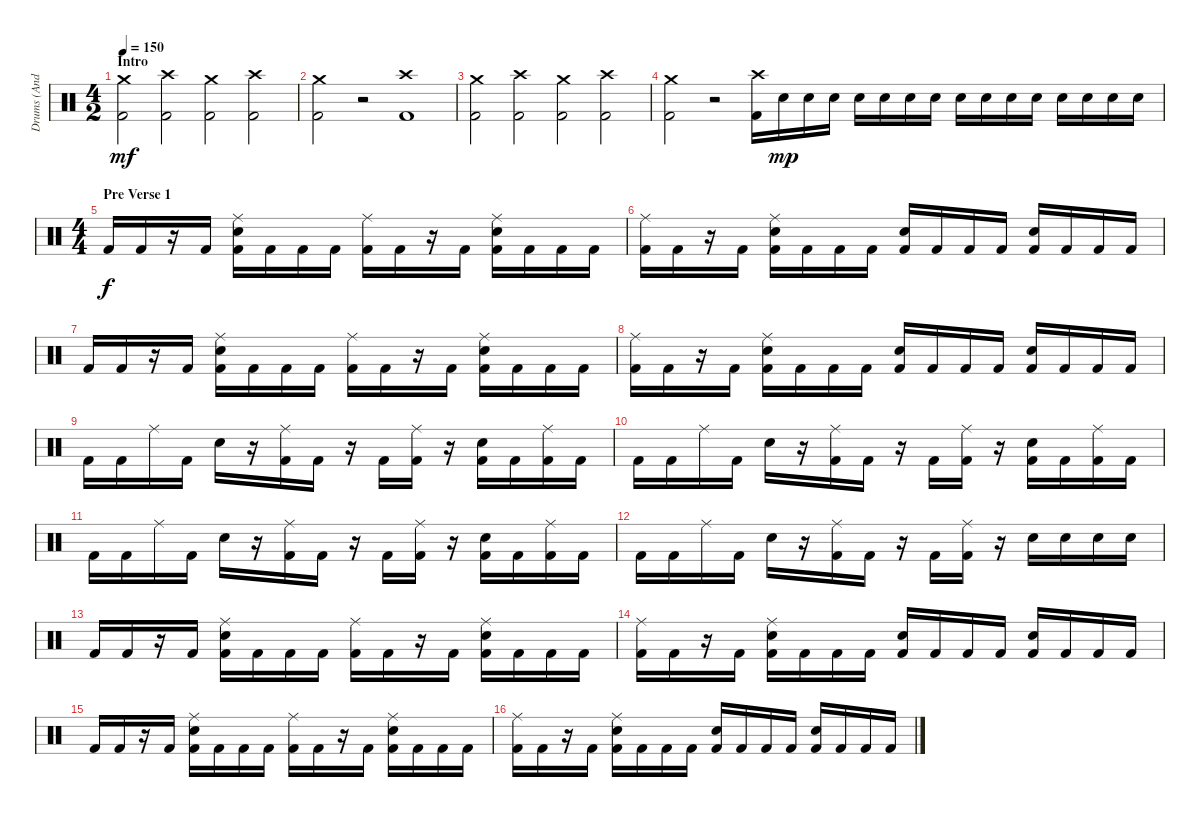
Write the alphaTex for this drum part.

\track ("Drums (Andy C)" "Drums (And") {instrument percussion}
\staff {score}
\articulation defaults
\ts (4 2)
\section ("" "Intro")
\tempo 150
\clef neutral
\ks c
("Crash medium (hit)" "Kick (hit) 2").2{dy mf} ("Crash high (hit)" "Kick (hit) 2").2 ("Crash medium (hit)" "Kick (hit) 2").2 ("Crash high (hit)" "Kick (hit) 2").2 |
("Crash medium (hit)" "Kick (hit) 2").2 r.2 ("Crash high (hit)" "Kick (hit) 2").1 |
("Crash medium (hit)" "Kick (hit) 2").2 ("Crash high (hit)" "Kick (hit) 2").2 ("Crash medium (hit)" "Kick (hit) 2").2 ("Crash high (hit)" "Kick (hit) 2").2 |
("Crash medium (hit)" "Kick (hit) 2").2 r.2 ("Crash high (hit)" "Kick (hit) 2").16 "Electric Snare (hit)".16{dy mp} "Electric Snare (hit)".16 "Electric Snare (hit)".16 "Electric Snare (hit)".16 "Electric Snare (hit)".16 "Electric Snare (hit)".16 "Electric Snare (hit)".16 "Electric Snare (hit)".16 "Electric Snare (hit)".16 "Electric Snare (hit)".16 "Electric Snare (hit)".16 "Electric Snare (hit)".16 "Electric Snare (hit)".16 "Electric Snare (hit)".16 "Electric Snare (hit)".16 |
\ts (4 4)
\section ("" "Pre Verse 1")
"Kick (hit) 2".16{dy f} "Kick (hit) 2".16 r.16 "Kick (hit) 2".16 ("Ride (middle)" "Kick (hit) 2" "Electric Snare (hit)").16 "Kick (hit) 2".16 "Kick (hit) 2".16 "Kick (hit) 2".16 ("Ride (middle)" "Kick (hit) 2").16 "Kick (hit) 2".16 r.16 "Kick (hit) 2".16 ("Ride (middle)" "Kick (hit) 2" "Electric Snare (hit)").16 "Kick (hit) 2".16 "Kick (hit) 2".16 "Kick (hit) 2".16 |
("Ride (middle)" "Kick (hit) 2").16 "Kick (hit) 2".16 r.16 "Kick (hit) 2".16 ("Ride (middle)" "Kick (hit) 2" "Electric Snare (hit)").16 "Kick (hit) 2".16 "Kick (hit) 2".16 "Kick (hit) 2".16 ("Kick (hit) 2" "Electric Snare (hit)").16 "Kick (hit) 2".16 "Kick (hit) 2".16 "Kick (hit) 2".16 ("Kick (hit) 2" "Electric Snare (hit)").16 "Kick (hit) 2".16 "Kick (hit) 2".16 "Kick (hit) 2".16 |
"Kick (hit) 2".16 "Kick (hit) 2".16 r.16 "Kick (hit) 2".16 ("Ride (middle)" "Kick (hit) 2" "Electric Snare (hit)").16 "Kick (hit) 2".16 "Kick (hit) 2".16 "Kick (hit) 2".16 ("Ride (middle)" "Kick (hit) 2").16 "Kick (hit) 2".16 r.16 "Kick (hit) 2".16 ("Ride (middle)" "Kick (hit) 2" "Electric Snare (hit)").16 "Kick (hit) 2".16 "Kick (hit) 2".16 "Kick (hit) 2".16 |
("Ride (middle)" "Kick (hit) 2").16 "Kick (hit) 2".16 r.16 "Kick (hit) 2".16 ("Ride (middle)" "Kick (hit) 2" "Electric Snare (hit)").16 "Kick (hit) 2".16 "Kick (hit) 2".16 "Kick (hit) 2".16 ("Kick (hit) 2" "Electric Snare (hit)").16 "Kick (hit) 2".16 "Kick (hit) 2".16 "Kick (hit) 2".16 ("Kick (hit) 2" "Electric Snare (hit)").16 "Kick (hit) 2".16 "Kick (hit) 2".16 "Kick (hit) 2".16 |
"Kick (hit) 2".16 "Kick (hit) 2".16 "Ride (middle)".16 "Kick (hit) 2".16 "Electric Snare (hit)".16 r.16 ("Ride (middle)" "Kick (hit) 2").16 "Kick (hit) 2".16 r.16 "Kick (hit) 2".16 ("Ride (middle)" "Kick (hit) 2").16 r.16 ("Kick (hit) 2" "Electric Snare (hit)").16 "Kick (hit) 2".16 ("Ride (middle)" "Kick (hit) 2").16 "Kick (hit) 2".16 |
"Kick (hit) 2".16 "Kick (hit) 2".16 "Ride (middle)".16 "Kick (hit) 2".16 "Electric Snare (hit)".16 r.16 ("Ride (middle)" "Kick (hit) 2").16 "Kick (hit) 2".16 r.16 "Kick (hit) 2".16 ("Ride (middle)" "Kick (hit) 2").16 r.16 ("Kick (hit) 2" "Electric Snare (hit)").16 "Kick (hit) 2".16 ("Ride (middle)" "Kick (hit) 2").16 "Kick (hit) 2".16 |
"Kick (hit) 2".16 "Kick (hit) 2".16 "Ride (middle)".16 "Kick (hit) 2".16 "Electric Snare (hit)".16 r.16 ("Ride (middle)" "Kick (hit) 2").16 "Kick (hit) 2".16 r.16 "Kick (hit) 2".16 ("Ride (middle)" "Kick (hit) 2").16 r.16 ("Kick (hit) 2" "Electric Snare (hit)").16 "Kick (hit) 2".16 ("Ride (middle)" "Kick (hit) 2").16 "Kick (hit) 2".16 |
"Kick (hit) 2".16 "Kick (hit) 2".16 "Ride (middle)".16 "Kick (hit) 2".16 "Electric Snare (hit)".16 r.16 ("Ride (middle)" "Kick (hit) 2").16 "Kick (hit) 2".16 r.16 "Kick (hit) 2".16 ("Ride (middle)" "Kick (hit) 2").16 r.16 "Electric Snare (hit)".16 "Electric Snare (hit)".16 "Electric Snare (hit)".16 "Electric Snare (hit)".16 |
"Kick (hit) 2".16 "Kick (hit) 2".16 r.16 "Kick (hit) 2".16 ("Ride (middle)" "Kick (hit) 2" "Electric Snare (hit)").16 "Kick (hit) 2".16 "Kick (hit) 2".16 "Kick (hit) 2".16 ("Ride (middle)" "Kick (hit) 2").16 "Kick (hit) 2".16 r.16 "Kick (hit) 2".16 ("Ride (middle)" "Kick (hit) 2" "Electric Snare (hit)").16 "Kick (hit) 2".16 "Kick (hit) 2".16 "Kick (hit) 2".16 |
("Ride (middle)" "Kick (hit) 2").16 "Kick (hit) 2".16 r.16 "Kick (hit) 2".16 ("Ride (middle)" "Kick (hit) 2" "Electric Snare (hit)").16 "Kick (hit) 2".16 "Kick (hit) 2".16 "Kick (hit) 2".16 ("Kick (hit) 2" "Electric Snare (hit)").16 "Kick (hit) 2".16 "Kick (hit) 2".16 "Kick (hit) 2".16 ("Kick (hit) 2" "Electric Snare (hit)").16 "Kick (hit) 2".16 "Kick (hit) 2".16 "Kick (hit) 2".16 |
"Kick (hit) 2".16 "Kick (hit) 2".16 r.16 "Kick (hit) 2".16 ("Ride (middle)" "Kick (hit) 2" "Electric Snare (hit)").16 "Kick (hit) 2".16 "Kick (hit) 2".16 "Kick (hit) 2".16 ("Ride (middle)" "Kick (hit) 2").16 "Kick (hit) 2".16 r.16 "Kick (hit) 2".16 ("Ride (middle)" "Kick (hit) 2" "Electric Snare (hit)").16 "Kick (hit) 2".16 "Kick (hit) 2".16 "Kick (hit) 2".16 |
("Ride (middle)" "Kick (hit) 2").16 "Kick (hit) 2".16 r.16 "Kick (hit) 2".16 ("Ride (middle)" "Kick (hit) 2" "Electric Snare (hit)").16 "Kick (hit) 2".16 "Kick (hit) 2".16 "Kick (hit) 2".16 ("Kick (hit) 2" "Electric Snare (hit)").16 "Kick (hit) 2".16 "Kick (hit) 2".16 "Kick (hit) 2".16 ("Kick (hit) 2" "Electric Snare (hit)").16 "Kick (hit) 2".16 "Kick (hit) 2".16 "Kick (hit) 2".16
